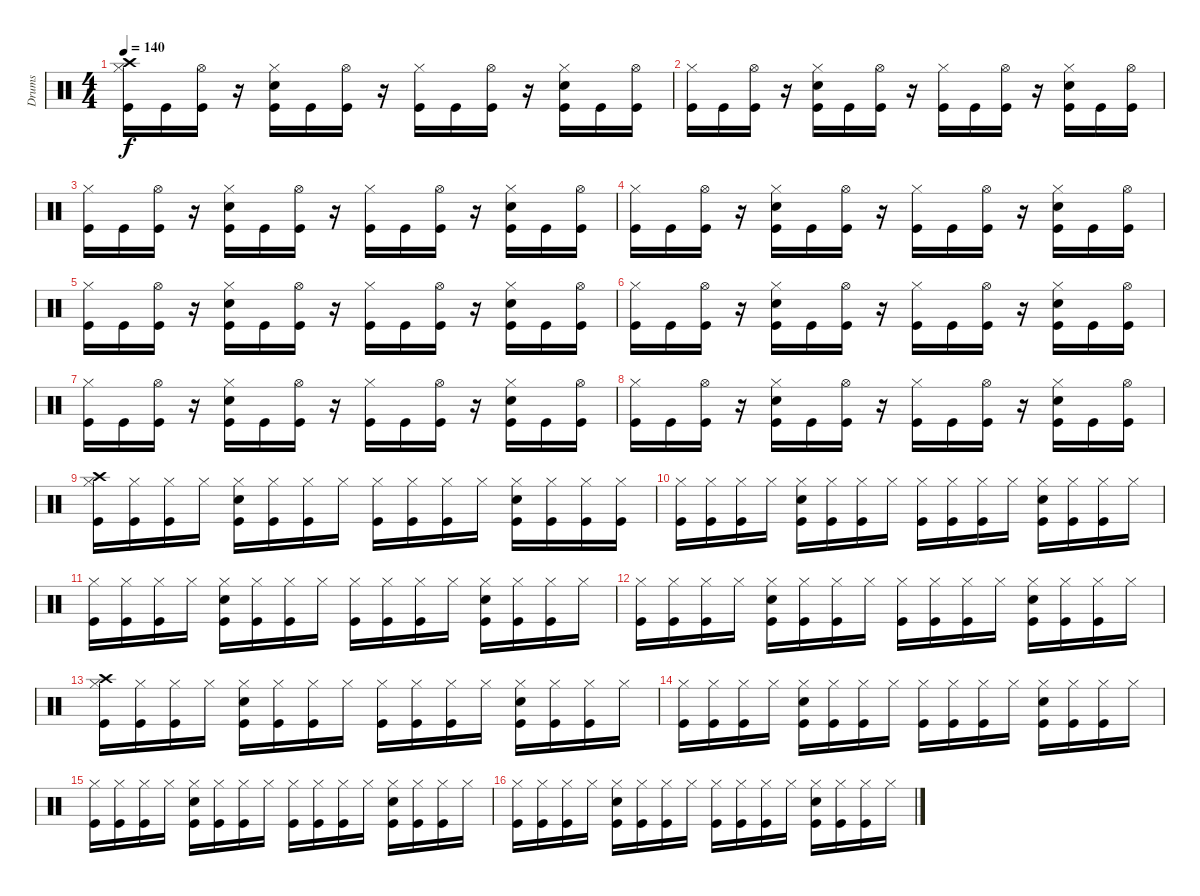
\track ("Drums" "Drums") {instrument percussion}
\staff {score}
\articulation defaults
\ts (4 4)
\tempo 140
\clef neutral
\ks c
("Hi-Hat (closed)" "Kick (hit)" "Crash high (hit)").16{dy f} "Kick (hit)".16 ("Hi-Hat (open)" "Kick (hit)").16 r.16 ("Hi-Hat (closed)" "Electric Snare (hit)" "Kick (hit)").16 "Kick (hit)".16 ("Kick (hit)" "Hi-Hat (open)").16 r.16 ("Hi-Hat (closed)" "Kick (hit)").16 "Kick (hit)".16 ("Kick (hit)" "Hi-Hat (open)").16 r.16 ("Hi-Hat (closed)" "Electric Snare (hit)" "Kick (hit)").16 "Kick (hit)".16 ("Kick (hit)" "Hi-Hat (open)").16 |
("Hi-Hat (closed)" "Kick (hit)").16 "Kick (hit)".16 ("Hi-Hat (open)" "Kick (hit)").16 r.16 ("Hi-Hat (closed)" "Electric Snare (hit)" "Kick (hit)").16 "Kick (hit)".16 ("Kick (hit)" "Hi-Hat (open)").16 r.16 ("Hi-Hat (closed)" "Kick (hit)").16 "Kick (hit)".16 ("Kick (hit)" "Hi-Hat (open)").16 r.16 ("Hi-Hat (closed)" "Electric Snare (hit)" "Kick (hit)").16 "Kick (hit)".16 ("Kick (hit)" "Hi-Hat (open)").16 |
("Hi-Hat (closed)" "Kick (hit)").16 "Kick (hit)".16 ("Hi-Hat (open)" "Kick (hit)").16 r.16 ("Hi-Hat (closed)" "Electric Snare (hit)" "Kick (hit)").16 "Kick (hit)".16 ("Kick (hit)" "Hi-Hat (open)").16 r.16 ("Hi-Hat (closed)" "Kick (hit)").16 "Kick (hit)".16 ("Kick (hit)" "Hi-Hat (open)").16 r.16 ("Hi-Hat (closed)" "Electric Snare (hit)" "Kick (hit)").16 "Kick (hit)".16 ("Kick (hit)" "Hi-Hat (open)").16 |
("Hi-Hat (closed)" "Kick (hit)").16 "Kick (hit)".16 ("Hi-Hat (open)" "Kick (hit)").16 r.16 ("Hi-Hat (closed)" "Electric Snare (hit)" "Kick (hit)").16 "Kick (hit)".16 ("Kick (hit)" "Hi-Hat (open)").16 r.16 ("Hi-Hat (closed)" "Kick (hit)").16 "Kick (hit)".16 ("Kick (hit)" "Hi-Hat (open)").16 r.16 ("Hi-Hat (closed)" "Electric Snare (hit)" "Kick (hit)").16 "Kick (hit)".16 ("Kick (hit)" "Hi-Hat (open)").16 |
("Hi-Hat (closed)" "Kick (hit)").16 "Kick (hit)".16 ("Hi-Hat (open)" "Kick (hit)").16 r.16 ("Hi-Hat (closed)" "Electric Snare (hit)" "Kick (hit)").16 "Kick (hit)".16 ("Kick (hit)" "Hi-Hat (open)").16 r.16 ("Hi-Hat (closed)" "Kick (hit)").16 "Kick (hit)".16 ("Kick (hit)" "Hi-Hat (open)").16 r.16 ("Hi-Hat (closed)" "Electric Snare (hit)" "Kick (hit)").16 "Kick (hit)".16 ("Kick (hit)" "Hi-Hat (open)").16 |
("Hi-Hat (closed)" "Kick (hit)").16 "Kick (hit)".16 ("Hi-Hat (open)" "Kick (hit)").16 r.16 ("Hi-Hat (closed)" "Electric Snare (hit)" "Kick (hit)").16 "Kick (hit)".16 ("Kick (hit)" "Hi-Hat (open)").16 r.16 ("Hi-Hat (closed)" "Kick (hit)").16 "Kick (hit)".16 ("Kick (hit)" "Hi-Hat (open)").16 r.16 ("Hi-Hat (closed)" "Electric Snare (hit)" "Kick (hit)").16 "Kick (hit)".16 ("Kick (hit)" "Hi-Hat (open)").16 |
("Hi-Hat (closed)" "Kick (hit)").16 "Kick (hit)".16 ("Hi-Hat (open)" "Kick (hit)").16 r.16 ("Hi-Hat (closed)" "Electric Snare (hit)" "Kick (hit)").16 "Kick (hit)".16 ("Kick (hit)" "Hi-Hat (open)").16 r.16 ("Hi-Hat (closed)" "Kick (hit)").16 "Kick (hit)".16 ("Kick (hit)" "Hi-Hat (open)").16 r.16 ("Hi-Hat (closed)" "Electric Snare (hit)" "Kick (hit)").16 "Kick (hit)".16 ("Kick (hit)" "Hi-Hat (open)").16 |
("Hi-Hat (closed)" "Kick (hit)").16 "Kick (hit)".16 ("Hi-Hat (open)" "Kick (hit)").16 r.16 ("Hi-Hat (closed)" "Electric Snare (hit)" "Kick (hit)").16 "Kick (hit)".16 ("Kick (hit)" "Hi-Hat (open)").16 r.16 ("Hi-Hat (closed)" "Kick (hit)").16 "Kick (hit)".16 ("Kick (hit)" "Hi-Hat (open)").16 r.16 ("Hi-Hat (closed)" "Electric Snare (hit)" "Kick (hit)").16 "Kick (hit)".16 ("Kick (hit)" "Hi-Hat (open)").16 |
("Hi-Hat (closed)" "Kick (hit)" "Crash high (hit)").16 ("Hi-Hat (closed)" "Kick (hit)").16 ("Hi-Hat (closed)" "Kick (hit)").16 "Hi-Hat (closed)".16 ("Hi-Hat (closed)" "Electric Snare (hit)" "Kick (hit)").16 ("Kick (hit)" "Hi-Hat (closed)").16 ("Kick (hit)" "Hi-Hat (closed)").16 "Hi-Hat (closed)".16 ("Hi-Hat (closed)" "Kick (hit)").16 ("Kick (hit)" "Hi-Hat (closed)").16 ("Kick (hit)" "Hi-Hat (closed)").16 "Hi-Hat (closed)".16 ("Hi-Hat (closed)" "Electric Snare (hit)" "Kick (hit)").16 ("Kick (hit)" "Hi-Hat (closed)").16 ("Kick (hit)" "Hi-Hat (closed)").16 ("Kick (hit)" "Hi-Hat (closed)").16 |
("Hi-Hat (closed)" "Kick (hit)").16 ("Hi-Hat (closed)" "Kick (hit)").16 ("Hi-Hat (closed)" "Kick (hit)").16 "Hi-Hat (closed)".16 ("Hi-Hat (closed)" "Electric Snare (hit)" "Kick (hit)").16 ("Kick (hit)" "Hi-Hat (closed)").16 ("Kick (hit)" "Hi-Hat (closed)").16 "Hi-Hat (closed)".16 ("Hi-Hat (closed)" "Kick (hit)").16 ("Kick (hit)" "Hi-Hat (closed)").16 ("Kick (hit)" "Hi-Hat (closed)").16 "Hi-Hat (closed)".16 ("Hi-Hat (closed)" "Electric Snare (hit)" "Kick (hit)").16 ("Kick (hit)" "Hi-Hat (closed)").16 ("Kick (hit)" "Hi-Hat (closed)").16 "Hi-Hat (closed)".16 |
("Hi-Hat (closed)" "Kick (hit)").16 ("Hi-Hat (closed)" "Kick (hit)").16 ("Hi-Hat (closed)" "Kick (hit)").16 "Hi-Hat (closed)".16 ("Hi-Hat (closed)" "Electric Snare (hit)" "Kick (hit)").16 ("Kick (hit)" "Hi-Hat (closed)").16 ("Kick (hit)" "Hi-Hat (closed)").16 "Hi-Hat (closed)".16 ("Hi-Hat (closed)" "Kick (hit)").16 ("Kick (hit)" "Hi-Hat (closed)").16 ("Kick (hit)" "Hi-Hat (closed)").16 "Hi-Hat (closed)".16 ("Hi-Hat (closed)" "Electric Snare (hit)" "Kick (hit)").16 ("Kick (hit)" "Hi-Hat (closed)").16 ("Kick (hit)" "Hi-Hat (closed)").16 "Hi-Hat (closed)".16 |
("Hi-Hat (closed)" "Kick (hit)").16 ("Hi-Hat (closed)" "Kick (hit)").16 ("Hi-Hat (closed)" "Kick (hit)").16 "Hi-Hat (closed)".16 ("Hi-Hat (closed)" "Electric Snare (hit)" "Kick (hit)").16 ("Kick (hit)" "Hi-Hat (closed)").16 ("Kick (hit)" "Hi-Hat (closed)").16 "Hi-Hat (closed)".16 ("Hi-Hat (closed)" "Kick (hit)").16 ("Kick (hit)" "Hi-Hat (closed)").16 ("Kick (hit)" "Hi-Hat (closed)").16 "Hi-Hat (closed)".16 ("Hi-Hat (closed)" "Electric Snare (hit)" "Kick (hit)").16 ("Kick (hit)" "Hi-Hat (closed)").16 ("Kick (hit)" "Hi-Hat (closed)").16 "Hi-Hat (closed)".16 |
("Hi-Hat (closed)" "Kick (hit)" "Crash high (hit)").16 ("Hi-Hat (closed)" "Kick (hit)").16 ("Hi-Hat (closed)" "Kick (hit)").16 "Hi-Hat (closed)".16 ("Hi-Hat (closed)" "Electric Snare (hit)" "Kick (hit)").16 ("Kick (hit)" "Hi-Hat (closed)").16 ("Kick (hit)" "Hi-Hat (closed)").16 "Hi-Hat (closed)".16 ("Hi-Hat (closed)" "Kick (hit)").16 ("Kick (hit)" "Hi-Hat (closed)").16 ("Kick (hit)" "Hi-Hat (closed)").16 "Hi-Hat (closed)".16 ("Hi-Hat (closed)" "Electric Snare (hit)" "Kick (hit)").16 ("Kick (hit)" "Hi-Hat (closed)").16 ("Kick (hit)" "Hi-Hat (closed)").16 "Hi-Hat (closed)".16 |
("Hi-Hat (closed)" "Kick (hit)").16 ("Hi-Hat (closed)" "Kick (hit)").16 ("Hi-Hat (closed)" "Kick (hit)").16 "Hi-Hat (closed)".16 ("Hi-Hat (closed)" "Electric Snare (hit)" "Kick (hit)").16 ("Kick (hit)" "Hi-Hat (closed)").16 ("Kick (hit)" "Hi-Hat (closed)").16 "Hi-Hat (closed)".16 ("Hi-Hat (closed)" "Kick (hit)").16 ("Kick (hit)" "Hi-Hat (closed)").16 ("Kick (hit)" "Hi-Hat (closed)").16 "Hi-Hat (closed)".16 ("Hi-Hat (closed)" "Electric Snare (hit)" "Kick (hit)").16 ("Kick (hit)" "Hi-Hat (closed)").16 ("Kick (hit)" "Hi-Hat (closed)").16 "Hi-Hat (closed)".16 |
("Hi-Hat (closed)" "Kick (hit)").16 ("Hi-Hat (closed)" "Kick (hit)").16 ("Hi-Hat (closed)" "Kick (hit)").16 "Hi-Hat (closed)".16 ("Hi-Hat (closed)" "Electric Snare (hit)" "Kick (hit)").16 ("Kick (hit)" "Hi-Hat (closed)").16 ("Kick (hit)" "Hi-Hat (closed)").16 "Hi-Hat (closed)".16 ("Hi-Hat (closed)" "Kick (hit)").16 ("Kick (hit)" "Hi-Hat (closed)").16 ("Kick (hit)" "Hi-Hat (closed)").16 "Hi-Hat (closed)".16 ("Hi-Hat (closed)" "Electric Snare (hit)" "Kick (hit)").16 ("Kick (hit)" "Hi-Hat (closed)").16 ("Kick (hit)" "Hi-Hat (closed)").16 "Hi-Hat (closed)".16 |
("Hi-Hat (closed)" "Kick (hit)").16 ("Hi-Hat (closed)" "Kick (hit)").16 ("Hi-Hat (closed)" "Kick (hit)").16 "Hi-Hat (closed)".16 ("Hi-Hat (closed)" "Electric Snare (hit)" "Kick (hit)").16 ("Kick (hit)" "Hi-Hat (closed)").16 ("Kick (hit)" "Hi-Hat (closed)").16 "Hi-Hat (closed)".16 ("Hi-Hat (closed)" "Kick (hit)").16 ("Kick (hit)" "Hi-Hat (closed)").16 ("Kick (hit)" "Hi-Hat (closed)").16 "Hi-Hat (closed)".16 ("Hi-Hat (closed)" "Electric Snare (hit)" "Kick (hit)").16 ("Kick (hit)" "Hi-Hat (closed)").16 ("Kick (hit)" "Hi-Hat (closed)").16 "Hi-Hat (closed)".16
